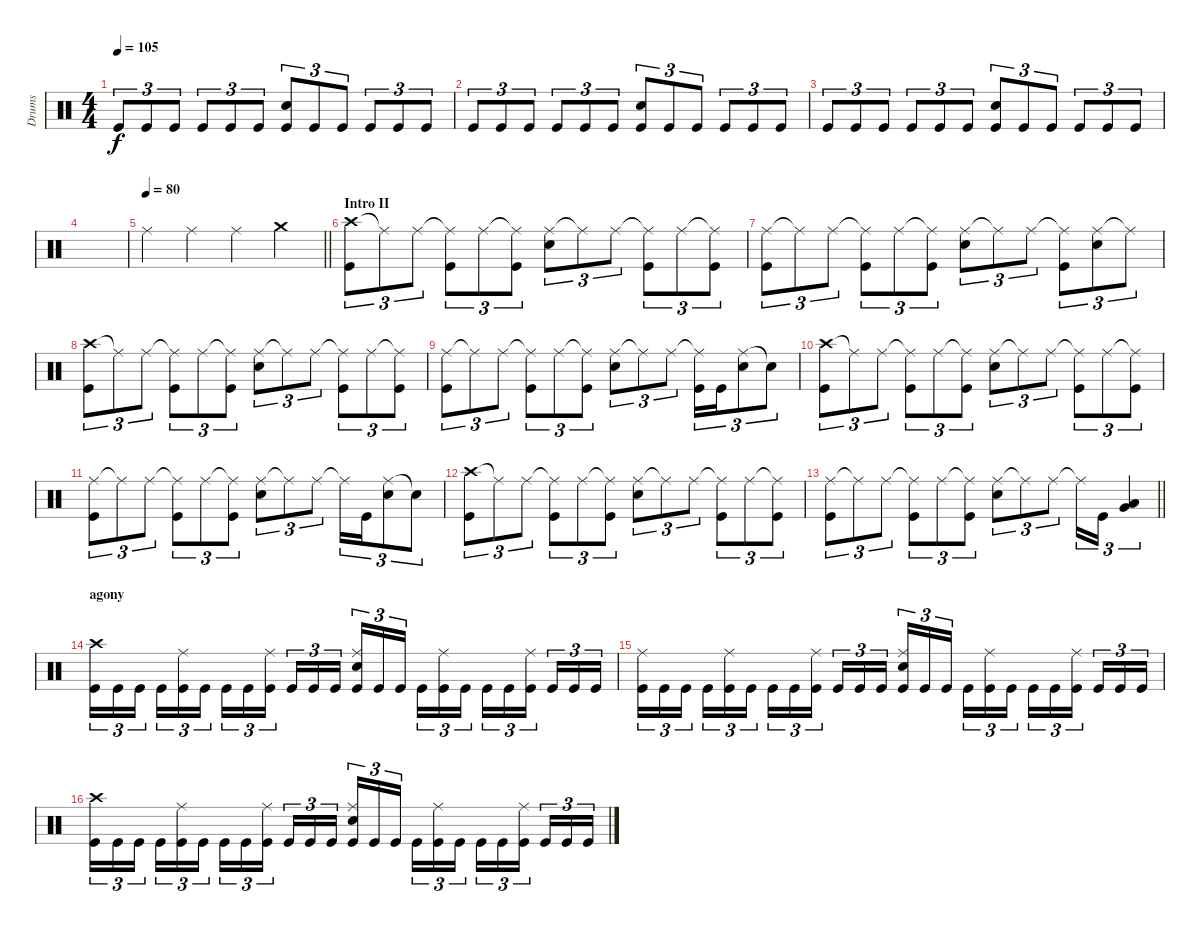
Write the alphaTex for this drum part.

\track ("Drums" "Drums") {instrument percussion}
\staff {score}
\articulation defaults
\ts (4 4)
\tempo 105
\clef neutral
\ks c "Kick (hit)".8{tu (3 2) dy f} "Kick (hit)".8{tu (3 2)} "Kick (hit)".8{tu (3 2)} "Kick (hit)".8{tu (3 2)} "Kick (hit)".8{tu (3 2)} "Kick (hit)".8{tu (3 2)}
("Electric Snare (hit)" "Kick (hit)").8{tu (3 2)} "Kick (hit)".8{tu (3 2)} "Kick (hit)".8{tu (3 2)} "Kick (hit)".8{tu (3 2)} "Kick (hit)".8{tu (3 2)} "Kick (hit)".8{tu (3 2)} |
"Kick (hit)".8{tu (3 2)} "Kick (hit)".8{tu (3 2)} "Kick (hit)".8{tu (3 2)} "Kick (hit)".8{tu (3 2)} "Kick (hit)".8{tu (3 2)} "Kick (hit)".8{tu (3 2)} ("Electric Snare (hit)" "Kick (hit)").8{tu (3 2)} "Kick (hit)".8{tu (3 2)} "Kick (hit)".8{tu (3 2)} "Kick (hit)".8{tu (3 2)} "Kick (hit)".8{tu (3 2)} "Kick (hit)".8{tu (3 2)} |
"Kick (hit)".8{tu (3 2)} "Kick (hit)".8{tu (3 2)} "Kick (hit)".8{tu (3 2)} "Kick (hit)".8{tu (3 2)} "Kick (hit)".8{tu (3 2)} "Kick (hit)".8{tu (3 2)} ("Electric Snare (hit)" "Kick (hit)").8{tu (3 2)} "Kick (hit)".8{tu (3 2)} "Kick (hit)".8{tu (3 2)} "Kick (hit)".8{tu (3 2)} "Kick (hit)".8{tu (3 2)} "Kick (hit)".8{tu (3 2)} |
|
\tempo 80
\barLineRight lightlight "Ride (middle)".4 "Ride (middle)".4 "Ride (middle)".4 "Crash medium (hit)".4
|
\section ("" "Intro II")
("Crash high (hit)" "Kick (hit)").8{tu (3 2)} "Ride (middle)"{t}.8{tu (3 2)} "Ride (middle)".8{tu (3 2)} ("Ride (middle)"{t} "Kick (hit)").8{tu (3 2)} "Ride (middle)".8{tu (3 2)} ("Ride (middle)"{t} "Kick (hit)").8{tu (3 2)} ("Ride (middle)" "Snare (hit) 2").8{tu (3 2)} "Ride (middle)"{t}.8{tu (3 2)} "Ride (middle)".8{tu (3 2)} ("Ride (middle)"{t} "Kick (hit)").8{tu (3 2)} "Ride (middle)".8{tu (3 2)} ("Ride (middle)"{t} "Kick (hit)").8{tu (3 2)} |
("Ride (middle)" "Kick (hit)").8{tu (3 2)} "Ride (middle)"{t}.8{tu (3 2)} "Ride (middle)".8{tu (3 2)} ("Ride (middle)"{t} "Kick (hit)").8{tu (3 2)} "Ride (middle)".8{tu (3 2)} ("Ride (middle)"{t} "Kick (hit)").8{tu (3 2)} ("Ride (middle)" "Snare (hit) 2").8{tu (3 2)} "Ride (middle)"{t}.8{tu (3 2)} "Ride (middle)".8{tu (3 2)} ("Ride (middle)"{t} "Kick (hit)").8{tu (3 2)} ("Ride (middle)" "Snare (hit) 2").8{tu (3 2)} "Ride (middle)"{t}.8{tu (3 2)} |
("Crash high (hit)" "Kick (hit)").8{tu (3 2)} "Ride (middle)"{t}.8{tu (3 2)} "Ride (middle)".8{tu (3 2)} ("Ride (middle)"{t} "Kick (hit)").8{tu (3 2)} "Ride (middle)".8{tu (3 2)} ("Ride (middle)"{t} "Kick (hit)").8{tu (3 2)} ("Ride (middle)" "Snare (hit) 2").8{tu (3 2)} "Ride (middle)"{t}.8{tu (3 2)} "Ride (middle)".8{tu (3 2)} ("Ride (middle)"{t} "Kick (hit)").8{tu (3 2)} "Ride (middle)".8{tu (3 2)} ("Ride (middle)"{t} "Kick (hit)").8{tu (3 2)} |
("Ride (middle)" "Kick (hit)").8{tu (3 2)} "Ride (middle)"{t}.8{tu (3 2)} "Ride (middle)".8{tu (3 2)} ("Ride (middle)"{t} "Kick (hit)").8{tu (3 2)} "Ride (middle)".8{tu (3 2)} ("Ride (middle)"{t} "Kick (hit)").8{tu (3 2)} ("Ride (middle)" "Snare (hit) 2").8{tu (3 2)} "Ride (middle)"{t}.8{tu (3 2)} "Ride (middle)".8{tu (3 2)} ("Ride (middle)"{t} "Kick (hit)").16{tu (3 2)} "Kick (hit)".16{tu (3 2)} ("Ride (middle)" "Snare (hit) 2").8{tu (3 2)} "Snare (hit)"{t}.8{tu (3 2)} |
("Crash high (hit)" "Kick (hit)").8{tu (3 2)} "Ride (middle)"{t}.8{tu (3 2)} "Ride (middle)".8{tu (3 2)} ("Ride (middle)"{t} "Kick (hit)").8{tu (3 2)} "Ride (middle)".8{tu (3 2)} ("Ride (middle)"{t} "Kick (hit)").8{tu (3 2)} ("Ride (middle)" "Snare (hit) 2").8{tu (3 2)} "Ride (middle)"{t}.8{tu (3 2)} "Ride (middle)".8{tu (3 2)} ("Ride (middle)"{t} "Kick (hit)").8{tu (3 2)} "Ride (middle)".8{tu (3 2)} ("Ride (middle)"{t} "Kick (hit)").8{tu (3 2)} |
("Ride (middle)" "Kick (hit)").8{tu (3 2)} "Ride (middle)"{t}.8{tu (3 2)} "Ride (middle)".8{tu (3 2)} ("Ride (middle)"{t} "Kick (hit)").8{tu (3 2)} "Ride (middle)".8{tu (3 2)} ("Ride (middle)"{t} "Kick (hit)").8{tu (3 2)} ("Ride (middle)" "Snare (hit) 2").8{tu (3 2)} "Ride (middle)"{t}.8{tu (3 2)} "Ride (middle)".8{tu (3 2)} "Ride (middle)"{t}.16{tu (3 2)} "Kick (hit)".16{tu (3 2)} ("Ride (middle)" "Snare (hit) 2").8{tu (3 2)} "Snare (hit)"{t}.8{tu (3 2)} |
("Crash high (hit)" "Kick (hit)").8{tu (3 2)} "Ride (middle)"{t}.8{tu (3 2)} "Ride (middle)".8{tu (3 2)} ("Ride (middle)"{t} "Kick (hit)").8{tu (3 2)} "Ride (middle)".8{tu (3 2)} ("Ride (middle)"{t} "Kick (hit)").8{tu (3 2)} ("Ride (middle)" "Snare (hit) 2").8{tu (3 2)} "Ride (middle)"{t}.8{tu (3 2)} "Ride (middle)".8{tu (3 2)} ("Ride (middle)"{t} "Kick (hit)").8{tu (3 2)} "Ride (middle)".8{tu (3 2)} ("Ride (middle)"{t} "Kick (hit)").8{tu (3 2)} |
\barLineRight lightlight
("Ride (middle)" "Kick (hit)").8{tu (3 2)} "Ride (middle)"{t}.8{tu (3 2)} "Ride (middle)".8{tu (3 2)} ("Ride (middle)"{t} "Kick (hit)").8{tu (3 2)} "Ride (middle)".8{tu (3 2)} ("Ride (middle)"{t} "Kick (hit)").8{tu (3 2)} ("Ride (middle)" "Snare (hit) 2").8{tu (3 2)} "Ride (middle)"{t}.8{tu (3 2)} "Ride (middle)".8{tu (3 2)} "Ride (middle)"{t}.16{tu (3 2)} "Kick (hit)".16{tu (3 2)} ("Low Tom (hit)" "Very Low Tom (hit)").4{tu (3 2) bu 120} |
\section ("" "agony")
("Crash high (hit)" "Kick (hit)").16{tu (3 2)} "Kick (hit)".16{tu (3 2)} "Kick (hit)".16{tu (3 2) beam splitsecondary} "Kick (hit)".16{tu (3 2)} ("Ride (middle)" "Kick (hit)").16{tu (3 2)} "Kick (hit)".16{tu (3 2)} "Kick (hit)".16{tu (3 2)} "Kick (hit)".16{tu (3 2)} ("Ride (middle)" "Kick (hit)").16{tu (3 2) beam splitsecondary} "Kick (hit)".16{tu (3 2)} "Kick (hit)".16{tu (3 2)} "Kick (hit)".16{tu (3 2)} ("Ride (middle)" "Snare (hit) 2" "Kick (hit)").16{tu (3 2)} "Kick (hit)".16{tu (3 2)} "Kick (hit)".16{tu (3 2) beam splitsecondary} "Kick (hit)".16{tu (3 2)} ("Ride (middle)" "Kick (hit)").16{tu (3 2)} "Kick (hit)".16{tu (3 2)} "Kick (hit)".16{tu (3 2)} "Kick (hit)".16{tu (3 2)} ("Ride (middle)" "Kick (hit)").16{tu (3 2) beam splitsecondary} "Kick (hit)".16{tu (3 2)} "Kick (hit)".16{tu (3 2)} "Kick (hit)".16{tu (3 2)} |
("Ride (middle)" "Kick (hit)").16{tu (3 2)} "Kick (hit)".16{tu (3 2)} "Kick (hit)".16{tu (3 2) beam splitsecondary} "Kick (hit)".16{tu (3 2)} ("Ride (middle)" "Kick (hit)").16{tu (3 2)} "Kick (hit)".16{tu (3 2)} "Kick (hit)".16{tu (3 2)} "Kick (hit)".16{tu (3 2)} ("Ride (middle)" "Kick (hit)").16{tu (3 2) beam splitsecondary} "Kick (hit)".16{tu (3 2)} "Kick (hit)".16{tu (3 2)} "Kick (hit)".16{tu (3 2)} ("Ride (middle)" "Snare (hit) 2" "Kick (hit)").16{tu (3 2)} "Kick (hit)".16{tu (3 2)} "Kick (hit)".16{tu (3 2) beam splitsecondary} "Kick (hit)".16{tu (3 2)} ("Ride (middle)" "Kick (hit)").16{tu (3 2)} "Kick (hit)".16{tu (3 2)} "Kick (hit)".16{tu (3 2)} "Kick (hit)".16{tu (3 2)} ("Ride (middle)" "Kick (hit)").16{tu (3 2) beam splitsecondary} "Kick (hit)".16{tu (3 2)} "Kick (hit)".16{tu (3 2)} "Kick (hit)".16{tu (3 2)} |
("Crash high (hit)" "Kick (hit)").16{tu (3 2)} "Kick (hit)".16{tu (3 2)} "Kick (hit)".16{tu (3 2) beam splitsecondary} "Kick (hit)".16{tu (3 2)} ("Ride (middle)" "Kick (hit)").16{tu (3 2)} "Kick (hit)".16{tu (3 2)} "Kick (hit)".16{tu (3 2)} "Kick (hit)".16{tu (3 2)} ("Ride (middle)" "Kick (hit)").16{tu (3 2) beam splitsecondary} "Kick (hit)".16{tu (3 2)} "Kick (hit)".16{tu (3 2)} "Kick (hit)".16{tu (3 2)} ("Ride (middle)" "Snare (hit) 2" "Kick (hit)").16{tu (3 2)} "Kick (hit)".16{tu (3 2)} "Kick (hit)".16{tu (3 2) beam splitsecondary} "Kick (hit)".16{tu (3 2)} ("Ride (middle)" "Kick (hit)").16{tu (3 2)} "Kick (hit)".16{tu (3 2)} "Kick (hit)".16{tu (3 2)} "Kick (hit)".16{tu (3 2)} ("Ride (middle)" "Kick (hit)").16{tu (3 2) beam splitsecondary} "Kick (hit)".16{tu (3 2)} "Kick (hit)".16{tu (3 2)} "Kick (hit)".16{tu (3 2)}
